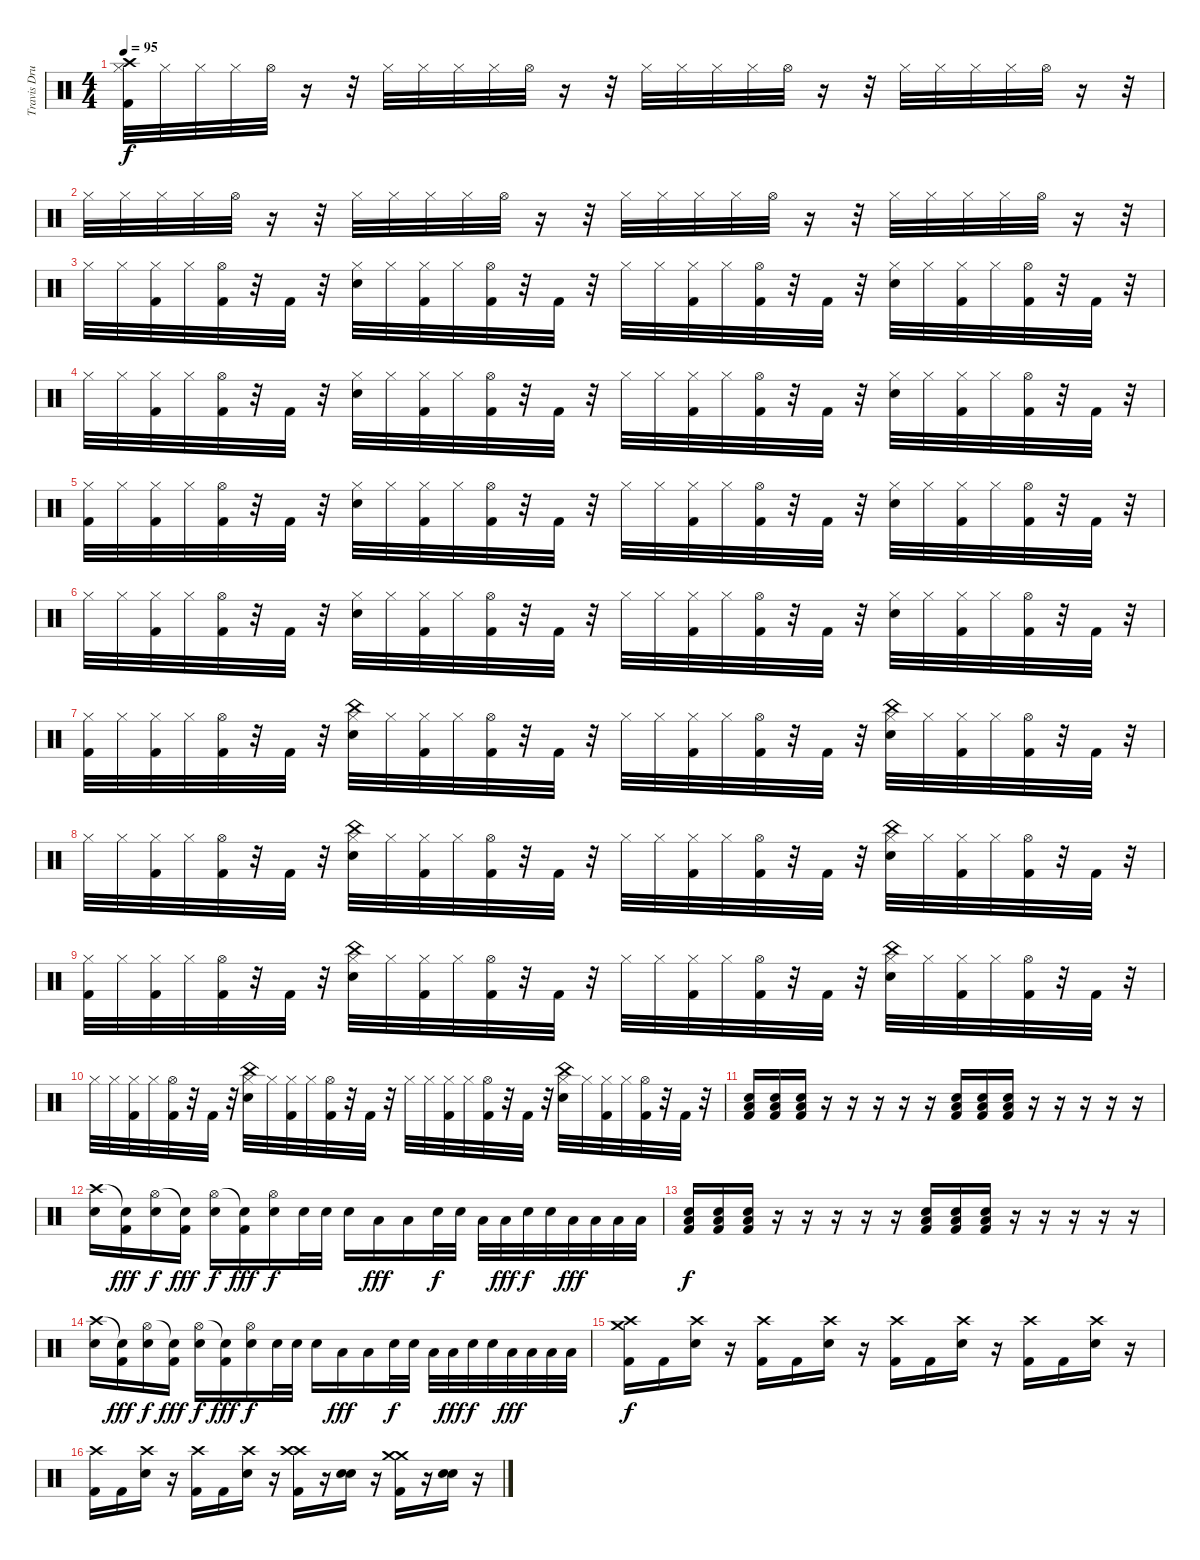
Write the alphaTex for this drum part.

\track ("Travis Drums" "Travis Dru") {instrument percussion}
\staff {score}
\articulation defaults
\ts (4 4)
\tempo 95
\clef neutral
\ks c
("Crash high (hit)" "Kick (hit) 2" "Hi-Hat (closed)").32{dy f} "Hi-Hat (closed)".32 "Hi-Hat (closed)".32 "Hi-Hat (closed)".32 "Hi-Hat (open)".32 r.16 r.32 "Hi-Hat (closed)".32 "Hi-Hat (closed)".32 "Hi-Hat (closed)".32 "Hi-Hat (closed)".32 "Hi-Hat (open)".32 r.16 r.32 "Hi-Hat (closed)".32 "Hi-Hat (closed)".32 "Hi-Hat (closed)".32 "Hi-Hat (closed)".32 "Hi-Hat (open)".32 r.16 r.32 "Hi-Hat (closed)".32 "Hi-Hat (closed)".32 "Hi-Hat (closed)".32 "Hi-Hat (closed)".32 "Hi-Hat (open)".32 r.16 r.32 |
"Hi-Hat (closed)".32 "Hi-Hat (closed)".32 "Hi-Hat (closed)".32 "Hi-Hat (closed)".32 "Hi-Hat (open)".32 r.16 r.32 "Hi-Hat (closed)".32 "Hi-Hat (closed)".32 "Hi-Hat (closed)".32 "Hi-Hat (closed)".32 "Hi-Hat (open)".32 r.16 r.32 "Hi-Hat (closed)".32 "Hi-Hat (closed)".32 "Hi-Hat (closed)".32 "Hi-Hat (closed)".32 "Hi-Hat (open)".32 r.16 r.32 "Hi-Hat (closed)".32 "Hi-Hat (closed)".32 "Hi-Hat (closed)".32 "Hi-Hat (closed)".32 "Hi-Hat (open)".32 r.16 r.32 |
"Hi-Hat (closed)".32 "Hi-Hat (closed)".32 ("Kick (hit) 2" "Hi-Hat (closed)").32 "Hi-Hat (closed)".32 ("Kick (hit) 2" "Hi-Hat (open)").32 r.32 "Kick (hit) 2".32 r.32 ("Snare (hit) 2" "Hi-Hat (closed)").32 "Hi-Hat (closed)".32 ("Kick (hit) 2" "Hi-Hat (closed)").32 "Hi-Hat (closed)".32 ("Kick (hit) 2" "Hi-Hat (open)").32 r.32 "Kick (hit) 2".32 r.32 "Hi-Hat (closed)".32 "Hi-Hat (closed)".32 ("Kick (hit) 2" "Hi-Hat (closed)").32 "Hi-Hat (closed)".32 ("Kick (hit) 2" "Hi-Hat (open)").32 r.32 "Kick (hit) 2".32 r.32 ("Snare (hit) 2" "Hi-Hat (closed)").32 "Hi-Hat (closed)".32 ("Kick (hit) 2" "Hi-Hat (closed)").32 "Hi-Hat (closed)".32 ("Kick (hit) 2" "Hi-Hat (open)").32 r.32 "Kick (hit) 2".32 r.32 |
"Hi-Hat (closed)".32 "Hi-Hat (closed)".32 ("Kick (hit) 2" "Hi-Hat (closed)").32 "Hi-Hat (closed)".32 ("Kick (hit) 2" "Hi-Hat (open)").32 r.32 "Kick (hit) 2".32 r.32 ("Snare (hit) 2" "Hi-Hat (closed)").32 "Hi-Hat (closed)".32 ("Kick (hit) 2" "Hi-Hat (closed)").32 "Hi-Hat (closed)".32 ("Kick (hit) 2" "Hi-Hat (open)").32 r.32 "Kick (hit) 2".32 r.32 "Hi-Hat (closed)".32 "Hi-Hat (closed)".32 ("Kick (hit) 2" "Hi-Hat (closed)").32 "Hi-Hat (closed)".32 ("Kick (hit) 2" "Hi-Hat (open)").32 r.32 "Kick (hit) 2".32 r.32 ("Snare (hit) 2" "Hi-Hat (closed)").32 "Hi-Hat (closed)".32 ("Kick (hit) 2" "Hi-Hat (closed)").32 "Hi-Hat (closed)".32 ("Kick (hit) 2" "Hi-Hat (open)").32 r.32 "Kick (hit) 2".32 r.32 |
("Kick (hit) 2" "Hi-Hat (closed)").32 "Hi-Hat (closed)".32 ("Kick (hit) 2" "Hi-Hat (closed)").32 "Hi-Hat (closed)".32 ("Kick (hit) 2" "Hi-Hat (open)").32 r.32 "Kick (hit) 2".32 r.32 ("Snare (hit) 2" "Hi-Hat (closed)").32 "Hi-Hat (closed)".32 ("Kick (hit) 2" "Hi-Hat (closed)").32 "Hi-Hat (closed)".32 ("Kick (hit) 2" "Hi-Hat (open)").32 r.32 "Kick (hit) 2".32 r.32 "Hi-Hat (closed)".32 "Hi-Hat (closed)".32 ("Kick (hit) 2" "Hi-Hat (closed)").32 "Hi-Hat (closed)".32 ("Kick (hit) 2" "Hi-Hat (open)").32 r.32 "Kick (hit) 2".32 r.32 ("Snare (hit) 2" "Hi-Hat (closed)").32 "Hi-Hat (closed)".32 ("Kick (hit) 2" "Hi-Hat (closed)").32 "Hi-Hat (closed)".32 ("Kick (hit) 2" "Hi-Hat (open)").32 r.32 "Kick (hit) 2".32 r.32 |
"Hi-Hat (closed)".32 "Hi-Hat (closed)".32 ("Kick (hit) 2" "Hi-Hat (closed)").32 "Hi-Hat (closed)".32 ("Kick (hit) 2" "Hi-Hat (open)").32 r.32 "Kick (hit) 2".32 r.32 ("Snare (hit) 2" "Hi-Hat (closed)").32 "Hi-Hat (closed)".32 ("Kick (hit) 2" "Hi-Hat (closed)").32 "Hi-Hat (closed)".32 ("Kick (hit) 2" "Hi-Hat (open)").32 r.32 "Kick (hit) 2".32 r.32 "Hi-Hat (closed)".32 "Hi-Hat (closed)".32 ("Kick (hit) 2" "Hi-Hat (closed)").32 "Hi-Hat (closed)".32 ("Kick (hit) 2" "Hi-Hat (open)").32 r.32 "Kick (hit) 2".32 r.32 ("Snare (hit) 2" "Hi-Hat (closed)").32 "Hi-Hat (closed)".32 ("Kick (hit) 2" "Hi-Hat (closed)").32 "Hi-Hat (closed)".32 ("Kick (hit) 2" "Hi-Hat (open)").32 r.32 "Kick (hit) 2".32 r.32 |
("Kick (hit) 2" "Hi-Hat (closed)").32 "Hi-Hat (closed)".32 ("Kick (hit) 2" "Hi-Hat (closed)").32 "Hi-Hat (closed)".32 ("Kick (hit) 2" "Hi-Hat (open)").32 r.32 "Kick (hit) 2".32 r.32 ("Snare (hit) 2" "Hi-Hat (closed)" "China (hit)").32 "Hi-Hat (closed)".32 ("Kick (hit) 2" "Hi-Hat (closed)").32 "Hi-Hat (closed)".32 ("Kick (hit) 2" "Hi-Hat (open)").32 r.32 "Kick (hit) 2".32 r.32 "Hi-Hat (closed)".32 "Hi-Hat (closed)".32 ("Kick (hit) 2" "Hi-Hat (closed)").32 "Hi-Hat (closed)".32 ("Kick (hit) 2" "Hi-Hat (open)").32 r.32 "Kick (hit) 2".32 r.32 ("Snare (hit) 2" "Hi-Hat (closed)" "China (hit)").32 "Hi-Hat (closed)".32 ("Kick (hit) 2" "Hi-Hat (closed)").32 "Hi-Hat (closed)".32 ("Kick (hit) 2" "Hi-Hat (open)").32 r.32 "Kick (hit) 2".32 r.32 |
"Hi-Hat (closed)".32 "Hi-Hat (closed)".32 ("Kick (hit) 2" "Hi-Hat (closed)").32 "Hi-Hat (closed)".32 ("Kick (hit) 2" "Hi-Hat (open)").32 r.32 "Kick (hit) 2".32 r.32 ("Snare (hit) 2" "Hi-Hat (closed)" "China (hit)").32 "Hi-Hat (closed)".32 ("Kick (hit) 2" "Hi-Hat (closed)").32 "Hi-Hat (closed)".32 ("Kick (hit) 2" "Hi-Hat (open)").32 r.32 "Kick (hit) 2".32 r.32 "Hi-Hat (closed)".32 "Hi-Hat (closed)".32 ("Kick (hit) 2" "Hi-Hat (closed)").32 "Hi-Hat (closed)".32 ("Kick (hit) 2" "Hi-Hat (open)").32 r.32 "Kick (hit) 2".32 r.32 ("Snare (hit) 2" "Hi-Hat (closed)" "China (hit)").32 "Hi-Hat (closed)".32 ("Kick (hit) 2" "Hi-Hat (closed)").32 "Hi-Hat (closed)".32 ("Kick (hit) 2" "Hi-Hat (open)").32 r.32 "Kick (hit) 2".32 r.32 |
("Kick (hit) 2" "Hi-Hat (closed)").32 "Hi-Hat (closed)".32 ("Kick (hit) 2" "Hi-Hat (closed)").32 "Hi-Hat (closed)".32 ("Kick (hit) 2" "Hi-Hat (open)").32 r.32 "Kick (hit) 2".32 r.32 ("Snare (hit) 2" "Hi-Hat (closed)" "China (hit)").32 "Hi-Hat (closed)".32 ("Kick (hit) 2" "Hi-Hat (closed)").32 "Hi-Hat (closed)".32 ("Kick (hit) 2" "Hi-Hat (open)").32 r.32 "Kick (hit) 2".32 r.32 "Hi-Hat (closed)".32 "Hi-Hat (closed)".32 ("Kick (hit) 2" "Hi-Hat (closed)").32 "Hi-Hat (closed)".32 ("Kick (hit) 2" "Hi-Hat (open)").32 r.32 "Kick (hit) 2".32 r.32 ("Snare (hit) 2" "Hi-Hat (closed)" "China (hit)").32 "Hi-Hat (closed)".32 ("Kick (hit) 2" "Hi-Hat (closed)").32 "Hi-Hat (closed)".32 ("Kick (hit) 2" "Hi-Hat (open)").32 r.32 "Kick (hit) 2".32 r.32 |
"Hi-Hat (closed)".32 "Hi-Hat (closed)".32 ("Kick (hit) 2" "Hi-Hat (closed)").32 "Hi-Hat (closed)".32 ("Kick (hit) 2" "Hi-Hat (open)").32 r.32 "Kick (hit) 2".32 r.32 ("Snare (hit) 2" "Hi-Hat (closed)" "China (hit)").32 "Hi-Hat (closed)".32 ("Kick (hit) 2" "Hi-Hat (closed)").32 "Hi-Hat (closed)".32 ("Kick (hit) 2" "Hi-Hat (open)").32 r.32 "Kick (hit) 2".32 r.32 "Hi-Hat (closed)".32 "Hi-Hat (closed)".32 ("Kick (hit) 2" "Hi-Hat (closed)").32 "Hi-Hat (closed)".32 ("Kick (hit) 2" "Hi-Hat (open)").32 r.32 "Kick (hit) 2".32 r.32 ("Snare (hit) 2" "Hi-Hat (closed)" "China (hit)").32 "Hi-Hat (closed)".32 ("Kick (hit) 2" "Hi-Hat (closed)").32 "Hi-Hat (closed)".32 ("Kick (hit) 2" "Hi-Hat (open)").32 r.32 "Kick (hit) 2".32 r.32 |
("Snare (hit) 2" "Kick (hit) 2" "Low Floor Tom (hit)").16 ("Snare (hit) 2" "Kick (hit) 2" "Low Floor Tom (hit)").16 ("Snare (hit) 2" "Kick (hit) 2" "Low Floor Tom (hit)").16 r.16 r.16 r.16 r.16 r.16 ("Snare (hit) 2" "Kick (hit) 2" "Low Floor Tom (hit)").16 ("Snare (hit) 2" "Kick (hit) 2" "Low Floor Tom (hit)").16 ("Snare (hit) 2" "Kick (hit) 2" "Low Floor Tom (hit)").16 r.16 r.16 r.16 r.16 r.16 |
("Crash high (hit)" "Snare (hit) 2").16 ("Snare (hit)"{t} "Kick (hit) 2").16{dy fff} ("Hi-Hat (open)" "Snare (hit) 2").16{dy f} ("Snare (hit)"{t} "Kick (hit) 2").16{dy fff} ("Hi-Hat (open)" "Snare (hit) 2").16{dy f} ("Snare (hit)"{t} "Kick (hit) 2").16{dy fff} ("Hi-Hat (open)" "Snare (hit) 2").16{dy f} "Snare (hit) 2".32 "Snare (hit) 2".32 "Snare (hit) 2".16 "Low Tom (hit)".16{dy fff} "Low Floor Tom (hit)".16 "Snare (hit) 2".32{dy f} "Snare (hit) 2".32 "Low Tom (hit)".32 "Low Tom (hit)".32{dy fff} "Snare (hit) 2".32{dy f} "Snare (hit) 2".32 "Low Floor Tom (hit)".32{dy fff} "Low Floor Tom (hit)".32 "Low Floor Tom (hit)".32 "Low Floor Tom (hit)".32 |
("Snare (hit) 2" "Kick (hit) 2" "Low Floor Tom (hit)").16{dy f} ("Snare (hit) 2" "Kick (hit) 2" "Low Floor Tom (hit)").16 ("Snare (hit) 2" "Kick (hit) 2" "Low Floor Tom (hit)").16 r.16 r.16 r.16 r.16 r.16 ("Snare (hit) 2" "Kick (hit) 2" "Low Floor Tom (hit)").16 ("Snare (hit) 2" "Kick (hit) 2" "Low Floor Tom (hit)").16 ("Snare (hit) 2" "Kick (hit) 2" "Low Floor Tom (hit)").16 r.16 r.16 r.16 r.16 r.16 |
("Crash high (hit)" "Snare (hit) 2").16 ("Snare (hit)"{t} "Kick (hit) 2").16{dy fff} ("Hi-Hat (open)" "Snare (hit) 2").16{dy f} ("Snare (hit)"{t} "Kick (hit) 2").16{dy fff} ("Hi-Hat (open)" "Snare (hit) 2").16{dy f} ("Snare (hit)"{t} "Kick (hit) 2").16{dy fff} ("Hi-Hat (open)" "Snare (hit) 2").16{dy f} "Snare (hit) 2".32 "Snare (hit) 2".32 "Snare (hit) 2".16 "Low Tom (hit)".16{dy fff} "Low Floor Tom (hit)".16 "Snare (hit) 2".32{dy f} "Snare (hit) 2".32 "Low Tom (hit)".32 "Low Tom (hit)".32{dy fff} "Snare (hit) 2".32{dy f} "Snare (hit) 2".32 "Low Floor Tom (hit)".32{dy fff} "Low Floor Tom (hit)".32 "Low Floor Tom (hit)".32 "Low Floor Tom (hit)".32 |
("Crash medium (hit)" "Crash high (hit)" "Kick (hit) 2").16{dy f} "Kick (hit) 2".16 ("Crash high (hit)" "Snare (hit) 2").16 r.16 ("Crash high (hit)" "Kick (hit) 2").16 "Kick (hit) 2".16 ("Crash high (hit)" "Snare (hit) 2").16 r.16 ("Crash high (hit)" "Kick (hit) 2").16 "Kick (hit) 2".16 ("Crash high (hit)" "Snare (hit) 2").16 r.16 ("Crash high (hit)" "Kick (hit) 2").16 "Kick (hit) 2".16 ("Crash high (hit)" "Snare (hit) 2").16 r.16 |
("Crash high (hit)" "Kick (hit) 2").16 "Kick (hit) 2".16 ("Crash high (hit)" "Snare (hit) 2").16 r.16 ("Crash high (hit)" "Kick (hit) 2").16 "Kick (hit) 2".16 ("Crash high (hit)" "Snare (hit) 2").16 r.16 ("Crash high (hit)" "Crash high (hit)" "Kick (hit) 2").16 r.16 ("Snare (hit) 2" "Snare (hit) 2").16 r.16 ("Crash medium (hit)" "Crash medium (hit)" "Kick (hit) 2").16 r.16 ("Snare (hit) 2" "Snare (hit) 2").16 r.16
